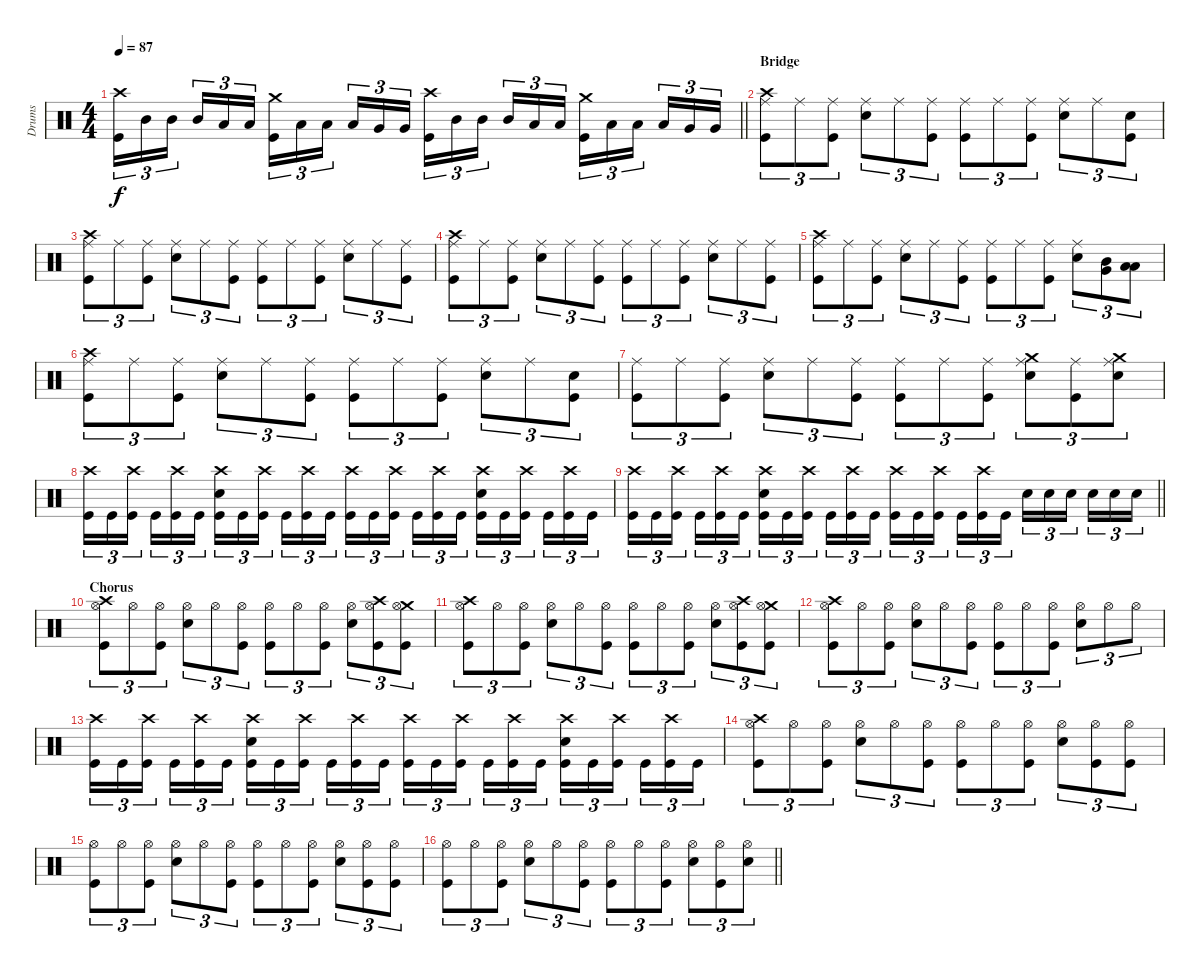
\track ("Drums" "Drums") {instrument percussion}
\staff {score}
\articulation defaults
\ts (4 4)
\tempo 87
\clef neutral
\barLineRight lightlight
\ks c
("Crash high (hit)" "Kick (hit)").16{tu (3 2) dy f} "Mid Tom (hit)".16{tu (3 2)} "Mid Tom (hit)".16{tu (3 2) beam splitsecondary} "Mid Tom (hit)".16{tu (3 2)} "Low Tom (hit)".16{tu (3 2)} "Low Tom (hit)".16{tu (3 2)} ("Crash medium (hit)" "Kick (hit)").16{tu (3 2)} "Low Tom (hit)".16{tu (3 2)} "Low Tom (hit)".16{tu (3 2) beam splitsecondary} "Low Tom (hit)".16{tu (3 2)} "Very Low Tom (hit)".16{tu (3 2)} "Very Low Tom (hit)".16{tu (3 2)} ("Crash high (hit)" "Kick (hit)").16{tu (3 2)} "Mid Tom (hit)".16{tu (3 2)} "Mid Tom (hit)".16{tu (3 2) beam splitsecondary} "Mid Tom (hit)".16{tu (3 2)} "Low Tom (hit)".16{tu (3 2)} "Low Tom (hit)".16{tu (3 2)} ("Crash medium (hit)" "Kick (hit)").16{tu (3 2)} "Low Tom (hit)".16{tu (3 2)} "Low Tom (hit)".16{tu (3 2) beam splitsecondary} "Low Tom (hit)".16{tu (3 2)} "Very Low Tom (hit)".16{tu (3 2)} "Very Low Tom (hit)".16{tu (3 2)} |
\section ("" "Bridge")
("Crash high (hit)" "Ride (middle)" "Kick (hit)").8{tu (3 2)} "Ride (middle)".8{tu (3 2)} ("Ride (middle)" "Kick (hit)").8{tu (3 2)} ("Ride (middle)" "Snare (hit) 2").8{tu (3 2)} "Ride (middle)".8{tu (3 2)} ("Ride (middle)" "Kick (hit)").8{tu (3 2)} ("Ride (middle)" "Kick (hit)").8{tu (3 2)} "Ride (middle)".8{tu (3 2)} ("Ride (middle)" "Kick (hit)").8{tu (3 2)} ("Ride (middle)" "Snare (hit) 2").8{tu (3 2)} "Ride (middle)".8{tu (3 2)} ("Snare (hit)" "Kick (hit)").8{tu (3 2)} |
("Crash high (hit)" "Ride (middle)" "Kick (hit)").8{tu (3 2)} "Ride (middle)".8{tu (3 2)} ("Ride (middle)" "Kick (hit)").8{tu (3 2)} ("Ride (middle)" "Snare (hit) 2").8{tu (3 2)} "Ride (middle)".8{tu (3 2)} ("Ride (middle)" "Kick (hit)").8{tu (3 2)} ("Ride (middle)" "Kick (hit)").8{tu (3 2)} "Ride (middle)".8{tu (3 2)} ("Ride (middle)" "Kick (hit)").8{tu (3 2)} ("Ride (middle)" "Snare (hit) 2").8{tu (3 2)} "Ride (middle)".8{tu (3 2)} ("Ride (middle)" "Kick (hit)").8{tu (3 2)} |
("Crash high (hit)" "Ride (middle)" "Kick (hit)").8{tu (3 2)} "Ride (middle)".8{tu (3 2)} ("Ride (middle)" "Kick (hit)").8{tu (3 2)} ("Ride (middle)" "Snare (hit) 2").8{tu (3 2)} "Ride (middle)".8{tu (3 2)} ("Ride (middle)" "Kick (hit)").8{tu (3 2)} ("Ride (middle)" "Kick (hit)").8{tu (3 2)} "Ride (middle)".8{tu (3 2)} ("Ride (middle)" "Kick (hit)").8{tu (3 2)} ("Ride (middle)" "Snare (hit) 2").8{tu (3 2)} "Ride (middle)".8{tu (3 2)} ("Ride (middle)" "Kick (hit)").8{tu (3 2)} |
("Crash high (hit)" "Ride (middle)" "Kick (hit)").8{tu (3 2)} "Ride (middle)".8{tu (3 2)} ("Ride (middle)" "Kick (hit)").8{tu (3 2)} ("Ride (middle)" "Snare (hit) 2").8{tu (3 2)} "Ride (middle)".8{tu (3 2)} ("Ride (middle)" "Kick (hit)").8{tu (3 2)} ("Ride (middle)" "Kick (hit)").8{tu (3 2)} "Ride (middle)".8{tu (3 2)} ("Ride (middle)" "Kick (hit)").8{tu (3 2)} ("Ride (middle)" "Snare (hit) 2").8{tu (3 2)} ("Very Low Tom (hit)" "Mid Tom (hit)").8{tu (3 2)} ("Low Floor Tom (hit)" "Low Tom (hit)").8{tu (3 2)} |
("Crash high (hit)" "Ride (middle)" "Kick (hit)").8{tu (3 2)} "Ride (middle)".8{tu (3 2)} ("Ride (middle)" "Kick (hit)").8{tu (3 2)} ("Ride (middle)" "Snare (hit) 2").8{tu (3 2)} "Ride (middle)".8{tu (3 2)} ("Ride (middle)" "Kick (hit)").8{tu (3 2)} ("Ride (middle)" "Kick (hit)").8{tu (3 2)} "Ride (middle)".8{tu (3 2)} ("Ride (middle)" "Kick (hit)").8{tu (3 2)} ("Ride (middle)" "Snare (hit) 2").8{tu (3 2)} "Ride (middle)".8{tu (3 2)} ("Snare (hit)" "Kick (hit)").8{tu (3 2)} |
("Ride (middle)" "Kick (hit)").8{tu (3 2)} "Ride (middle)".8{tu (3 2)} ("Ride (middle)" "Kick (hit)").8{tu (3 2)} ("Ride (middle)" "Snare (hit) 2").8{tu (3 2)} "Ride (middle)".8{tu (3 2)} ("Ride (middle)" "Kick (hit)").8{tu (3 2)} ("Ride (middle)" "Kick (hit)").8{tu (3 2)} "Ride (middle)".8{tu (3 2)} ("Ride (middle)" "Kick (hit)").8{tu (3 2)} ("Crash medium (hit)" "Ride (middle)" "Snare (hit) 2").8{tu (3 2)} ("Ride (middle)" "Kick (hit)").8{tu (3 2)} ("Crash medium (hit)" "Ride (middle)" "Snare (hit) 2").8{tu (3 2)} |
("Crash high (hit)" "Kick (hit)").16{tu (3 2)} "Kick (hit)".16{tu (3 2)} ("Crash high (hit)" "Kick (hit)").16{tu (3 2) beam splitsecondary} "Kick (hit)".16{tu (3 2)} ("Crash high (hit)" "Kick (hit)").16{tu (3 2)} "Kick (hit)".16{tu (3 2)} ("Crash high (hit)" "Snare (hit) 2" "Kick (hit)").16{tu (3 2)} "Kick (hit)".16{tu (3 2)} ("Crash high (hit)" "Kick (hit)").16{tu (3 2) beam splitsecondary} "Kick (hit)".16{tu (3 2)} ("Crash high (hit)" "Kick (hit)").16{tu (3 2)} "Kick (hit)".16{tu (3 2)} ("Crash high (hit)" "Kick (hit)").16{tu (3 2)} "Kick (hit)".16{tu (3 2)} ("Crash high (hit)" "Kick (hit)").16{tu (3 2) beam splitsecondary} "Kick (hit)".16{tu (3 2)} ("Crash high (hit)" "Kick (hit)").16{tu (3 2)} "Kick (hit)".16{tu (3 2)} ("Crash high (hit)" "Snare (hit) 2" "Kick (hit)").16{tu (3 2)} "Kick (hit)".16{tu (3 2)} ("Crash high (hit)" "Kick (hit)").16{tu (3 2) beam splitsecondary} "Kick (hit)".16{tu (3 2)} ("Crash high (hit)" "Kick (hit)").16{tu (3 2)} "Kick (hit)".16{tu (3 2)} |
\barLineRight lightlight
("Crash high (hit)" "Kick (hit)").16{tu (3 2)} "Kick (hit)".16{tu (3 2)} ("Crash high (hit)" "Kick (hit)").16{tu (3 2) beam splitsecondary} "Kick (hit)".16{tu (3 2)} ("Crash high (hit)" "Kick (hit)").16{tu (3 2)} "Kick (hit)".16{tu (3 2)} ("Crash high (hit)" "Snare (hit) 2" "Kick (hit)").16{tu (3 2)} "Kick (hit)".16{tu (3 2)} ("Crash high (hit)" "Kick (hit)").16{tu (3 2) beam splitsecondary} "Kick (hit)".16{tu (3 2)} ("Crash high (hit)" "Kick (hit)").16{tu (3 2)} "Kick (hit)".16{tu (3 2)} ("Crash high (hit)" "Kick (hit)").16{tu (3 2)} "Kick (hit)".16{tu (3 2)} ("Crash high (hit)" "Kick (hit)").16{tu (3 2) beam splitsecondary} "Kick (hit)".16{tu (3 2)} ("Crash high (hit)" "Kick (hit)").16{tu (3 2)} "Kick (hit)".16{tu (3 2)} "Snare (hit) 2".16{tu (3 2)} "Snare (hit) 2".16{tu (3 2)} "Snare (hit) 2".16{tu (3 2) beam splitsecondary} "Snare (hit) 2".16{tu (3 2)} "Snare (hit) 2".16{tu (3 2)} "Snare (hit) 2".16{tu (3 2)} |
\section ("" "Chorus")
("Crash high (hit)" "Hi-Hat (open)" "Kick (hit)").8{tu (3 2)} "Hi-Hat (open)".8{tu (3 2)} ("Hi-Hat (open)" "Kick (hit)").8{tu (3 2)} ("Hi-Hat (open)" "Snare (hit) 2").8{tu (3 2)} "Hi-Hat (open)".8{tu (3 2)} ("Hi-Hat (open)" "Kick (hit)").8{tu (3 2)} ("Hi-Hat (open)" "Kick (hit)").8{tu (3 2)} "Hi-Hat (open)".8{tu (3 2)} ("Hi-Hat (open)" "Kick (hit)").8{tu (3 2)} ("Hi-Hat (open)" "Snare (hit) 2").8{tu (3 2)} ("Crash high (hit)" "Hi-Hat (open)" "Kick (hit)").8{tu (3 2)} ("Crash medium (hit)" "Hi-Hat (open)" "Kick (hit)").8{tu (3 2)} |
("Crash high (hit)" "Hi-Hat (open)" "Kick (hit)").8{tu (3 2)} "Hi-Hat (open)".8{tu (3 2)} ("Hi-Hat (open)" "Kick (hit)").8{tu (3 2)} ("Hi-Hat (open)" "Snare (hit) 2").8{tu (3 2)} "Hi-Hat (open)".8{tu (3 2)} ("Hi-Hat (open)" "Kick (hit)").8{tu (3 2)} ("Hi-Hat (open)" "Kick (hit)").8{tu (3 2)} "Hi-Hat (open)".8{tu (3 2)} ("Hi-Hat (open)" "Kick (hit)").8{tu (3 2)} ("Hi-Hat (open)" "Snare (hit) 2").8{tu (3 2)} ("Crash high (hit)" "Hi-Hat (open)" "Kick (hit)").8{tu (3 2)} ("Crash medium (hit)" "Hi-Hat (open)" "Kick (hit)").8{tu (3 2)} |
("Crash high (hit)" "Hi-Hat (open)" "Kick (hit)").8{tu (3 2)} "Hi-Hat (open)".8{tu (3 2)} ("Hi-Hat (open)" "Kick (hit)").8{tu (3 2)} ("Hi-Hat (open)" "Snare (hit) 2").8{tu (3 2)} "Hi-Hat (open)".8{tu (3 2)} ("Hi-Hat (open)" "Kick (hit)").8{tu (3 2)} ("Hi-Hat (open)" "Kick (hit)").8{tu (3 2)} "Hi-Hat (open)".8{tu (3 2)} ("Hi-Hat (open)" "Kick (hit)").8{tu (3 2)} ("Hi-Hat (open)" "Snare (hit) 2").8{tu (3 2)} "Hi-Hat (open)".8{tu (3 2)} "Hi-Hat (open)".8{tu (3 2)} |
("Crash high (hit)" "Kick (hit)").16{tu (3 2)} "Kick (hit)".16{tu (3 2)} ("Crash high (hit)" "Kick (hit)").16{tu (3 2) beam splitsecondary} "Kick (hit)".16{tu (3 2)} ("Crash high (hit)" "Kick (hit)").16{tu (3 2)} "Kick (hit)".16{tu (3 2)} ("Crash high (hit)" "Snare (hit) 2" "Kick (hit)").16{tu (3 2)} "Kick (hit)".16{tu (3 2)} ("Crash high (hit)" "Kick (hit)").16{tu (3 2) beam splitsecondary} "Kick (hit)".16{tu (3 2)} ("Crash high (hit)" "Kick (hit)").16{tu (3 2)} "Kick (hit)".16{tu (3 2)} ("Crash high (hit)" "Kick (hit)").16{tu (3 2)} "Kick (hit)".16{tu (3 2)} ("Crash high (hit)" "Kick (hit)").16{tu (3 2) beam splitsecondary} "Kick (hit)".16{tu (3 2)} ("Crash high (hit)" "Kick (hit)").16{tu (3 2)} "Kick (hit)".16{tu (3 2)} ("Crash high (hit)" "Snare (hit) 2" "Kick (hit)").16{tu (3 2)} "Kick (hit)".16{tu (3 2)} ("Crash high (hit)" "Kick (hit)").16{tu (3 2) beam splitsecondary} "Kick (hit)".16{tu (3 2)} ("Crash high (hit)" "Kick (hit)").16{tu (3 2)} "Kick (hit)".16{tu (3 2)} |
("Crash high (hit)" "Hi-Hat (open)" "Kick (hit)").8{tu (3 2)} "Hi-Hat (open)".8{tu (3 2)} ("Hi-Hat (open)" "Kick (hit)").8{tu (3 2)} ("Hi-Hat (open)" "Snare (hit) 2").8{tu (3 2)} "Hi-Hat (open)".8{tu (3 2)} ("Hi-Hat (open)" "Kick (hit)").8{tu (3 2)} ("Hi-Hat (open)" "Kick (hit)").8{tu (3 2)} "Hi-Hat (open)".8{tu (3 2)} ("Hi-Hat (open)" "Kick (hit)").8{tu (3 2)} ("Hi-Hat (open)" "Snare (hit) 2").8{tu (3 2)} ("Hi-Hat (open)" "Kick (hit)").8{tu (3 2)} ("Hi-Hat (open)" "Kick (hit)").8{tu (3 2)} |
("Hi-Hat (open)" "Kick (hit)").8{tu (3 2)} "Hi-Hat (open)".8{tu (3 2)} ("Hi-Hat (open)" "Kick (hit)").8{tu (3 2)} ("Hi-Hat (open)" "Snare (hit) 2").8{tu (3 2)} "Hi-Hat (open)".8{tu (3 2)} ("Hi-Hat (open)" "Kick (hit)").8{tu (3 2)} ("Hi-Hat (open)" "Kick (hit)").8{tu (3 2)} "Hi-Hat (open)".8{tu (3 2)} ("Hi-Hat (open)" "Kick (hit)").8{tu (3 2)} ("Hi-Hat (open)" "Snare (hit) 2").8{tu (3 2)} ("Hi-Hat (open)" "Kick (hit)").8{tu (3 2)} ("Hi-Hat (open)" "Kick (hit)").8{tu (3 2)} |
\barLineRight lightlight
("Hi-Hat (open)" "Kick (hit)").8{tu (3 2)} "Hi-Hat (open)".8{tu (3 2)} ("Hi-Hat (open)" "Kick (hit)").8{tu (3 2)} ("Hi-Hat (open)" "Snare (hit) 2").8{tu (3 2)} "Hi-Hat (open)".8{tu (3 2)} ("Hi-Hat (open)" "Kick (hit)").8{tu (3 2)} ("Hi-Hat (open)" "Kick (hit)").8{tu (3 2)} "Hi-Hat (open)".8{tu (3 2)} ("Hi-Hat (open)" "Kick (hit)").8{tu (3 2)} ("Hi-Hat (open)" "Snare (hit) 2").8{tu (3 2)} ("Hi-Hat (open)" "Kick (hit)").8{tu (3 2)} ("Hi-Hat (open)" "Snare (hit) 2").8{tu (3 2)}
